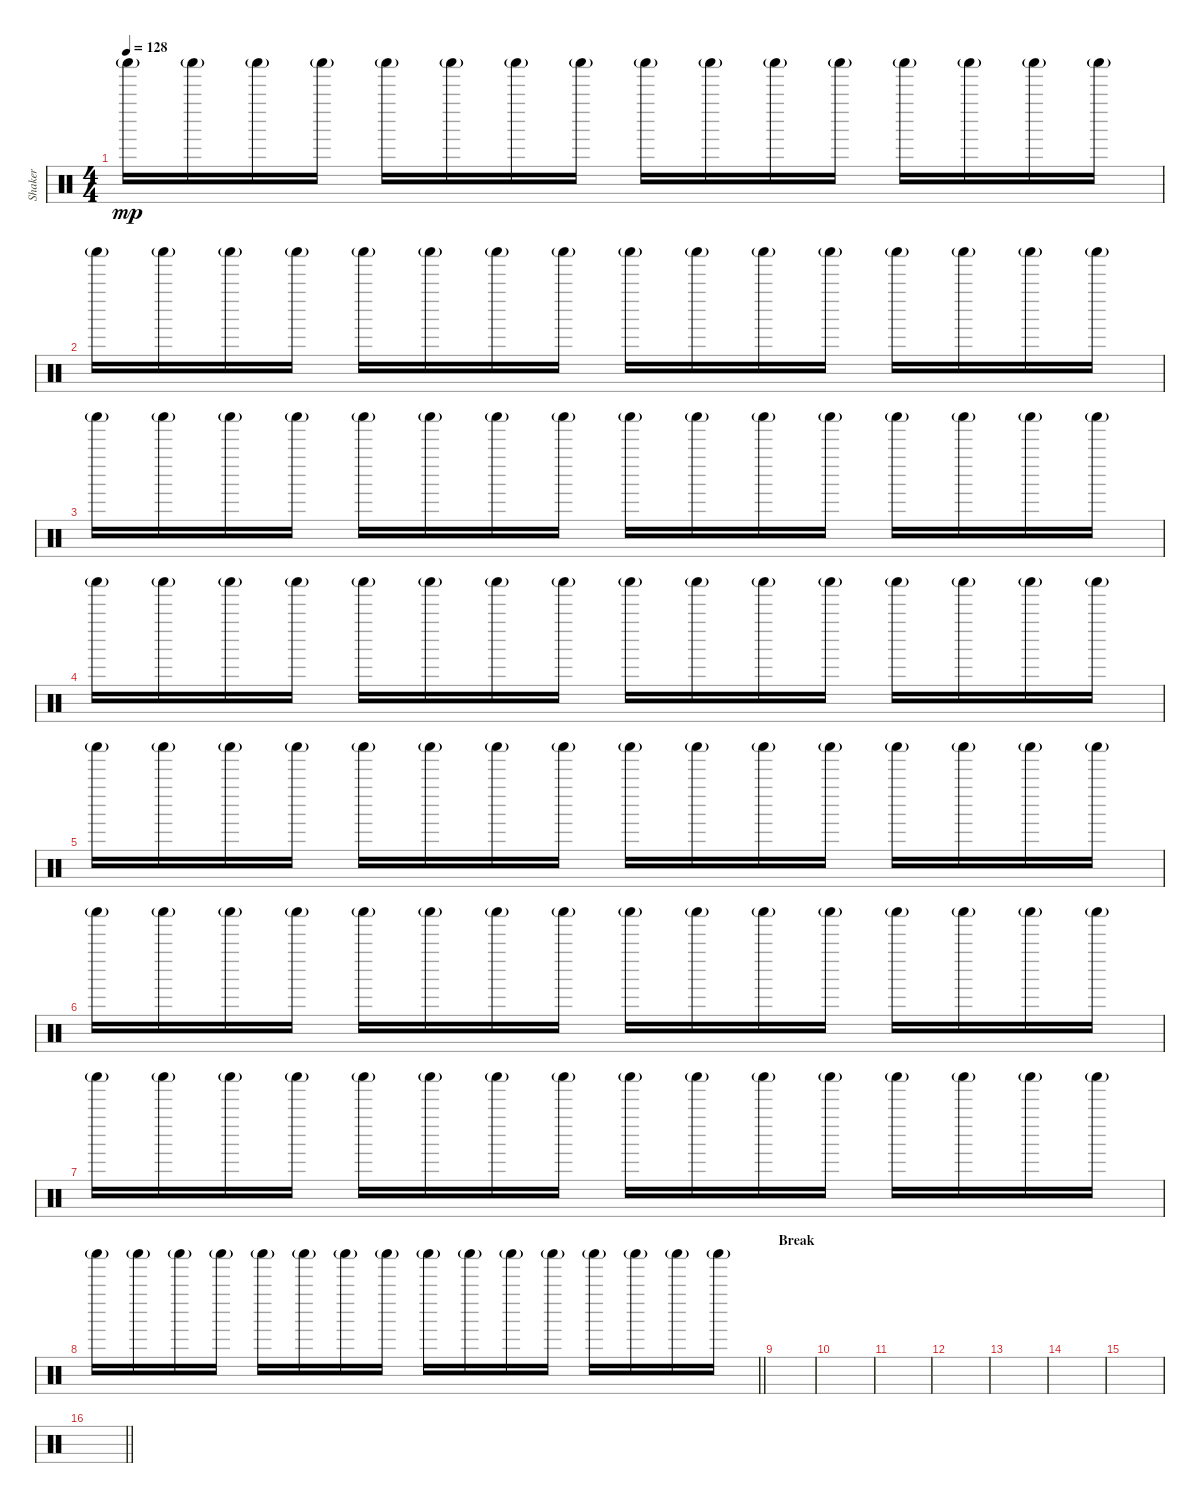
\track ("Shaker" "Shaker") {instrument percussion}
\staff {score}
\articulation defaults
\ts (4 4)
\tempo 128
\clef neutral
\ks c "Shaker (hit)"{g}.16{dy mp} "Shaker (hit)"{g}.16 "Shaker (hit)"{g}.16 "Shaker (hit)"{g}.16 "Shaker (hit)"{g}.16 "Shaker (hit)"{g}.16 "Shaker (hit)"{g}.16 "Shaker (hit)"{g}.16 "Shaker (hit)"{g}.16 "Shaker (hit)"{g}.16 "Shaker (hit)"{g}.16 "Shaker (hit)"{g}.16 "Shaker (hit)"{g}.16 "Shaker (hit)"{g}.16 "Shaker (hit)"{g}.16 "Shaker (hit)"{g}.16
|
"Shaker (hit)"{g}.16 "Shaker (hit)"{g}.16 "Shaker (hit)"{g}.16 "Shaker (hit)"{g}.16 "Shaker (hit)"{g}.16 "Shaker (hit)"{g}.16 "Shaker (hit)"{g}.16 "Shaker (hit)"{g}.16 "Shaker (hit)"{g}.16 "Shaker (hit)"{g}.16 "Shaker (hit)"{g}.16 "Shaker (hit)"{g}.16 "Shaker (hit)"{g}.16 "Shaker (hit)"{g}.16 "Shaker (hit)"{g}.16 "Shaker (hit)"{g}.16 |
"Shaker (hit)"{g}.16 "Shaker (hit)"{g}.16 "Shaker (hit)"{g}.16 "Shaker (hit)"{g}.16 "Shaker (hit)"{g}.16 "Shaker (hit)"{g}.16 "Shaker (hit)"{g}.16 "Shaker (hit)"{g}.16 "Shaker (hit)"{g}.16 "Shaker (hit)"{g}.16 "Shaker (hit)"{g}.16 "Shaker (hit)"{g}.16 "Shaker (hit)"{g}.16 "Shaker (hit)"{g}.16 "Shaker (hit)"{g}.16 "Shaker (hit)"{g}.16 |
"Shaker (hit)"{g}.16 "Shaker (hit)"{g}.16 "Shaker (hit)"{g}.16 "Shaker (hit)"{g}.16 "Shaker (hit)"{g}.16 "Shaker (hit)"{g}.16 "Shaker (hit)"{g}.16 "Shaker (hit)"{g}.16 "Shaker (hit)"{g}.16 "Shaker (hit)"{g}.16 "Shaker (hit)"{g}.16 "Shaker (hit)"{g}.16 "Shaker (hit)"{g}.16 "Shaker (hit)"{g}.16 "Shaker (hit)"{g}.16 "Shaker (hit)"{g}.16 |
"Shaker (hit)"{g}.16 "Shaker (hit)"{g}.16 "Shaker (hit)"{g}.16 "Shaker (hit)"{g}.16 "Shaker (hit)"{g}.16 "Shaker (hit)"{g}.16 "Shaker (hit)"{g}.16 "Shaker (hit)"{g}.16 "Shaker (hit)"{g}.16 "Shaker (hit)"{g}.16 "Shaker (hit)"{g}.16 "Shaker (hit)"{g}.16 "Shaker (hit)"{g}.16 "Shaker (hit)"{g}.16 "Shaker (hit)"{g}.16 "Shaker (hit)"{g}.16 |
"Shaker (hit)"{g}.16 "Shaker (hit)"{g}.16 "Shaker (hit)"{g}.16 "Shaker (hit)"{g}.16 "Shaker (hit)"{g}.16 "Shaker (hit)"{g}.16 "Shaker (hit)"{g}.16 "Shaker (hit)"{g}.16 "Shaker (hit)"{g}.16 "Shaker (hit)"{g}.16 "Shaker (hit)"{g}.16 "Shaker (hit)"{g}.16 "Shaker (hit)"{g}.16 "Shaker (hit)"{g}.16 "Shaker (hit)"{g}.16 "Shaker (hit)"{g}.16 |
"Shaker (hit)"{g}.16 "Shaker (hit)"{g}.16 "Shaker (hit)"{g}.16 "Shaker (hit)"{g}.16 "Shaker (hit)"{g}.16 "Shaker (hit)"{g}.16 "Shaker (hit)"{g}.16 "Shaker (hit)"{g}.16 "Shaker (hit)"{g}.16 "Shaker (hit)"{g}.16 "Shaker (hit)"{g}.16 "Shaker (hit)"{g}.16 "Shaker (hit)"{g}.16 "Shaker (hit)"{g}.16 "Shaker (hit)"{g}.16 "Shaker (hit)"{g}.16 |
\barLineRight lightlight "Shaker (hit)"{g}.16 "Shaker (hit)"{g}.16 "Shaker (hit)"{g}.16 "Shaker (hit)"{g}.16 "Shaker (hit)"{g}.16 "Shaker (hit)"{g}.16 "Shaker (hit)"{g}.16 "Shaker (hit)"{g}.16 "Shaker (hit)"{g}.16 "Shaker (hit)"{g}.16 "Shaker (hit)"{g}.16 "Shaker (hit)"{g}.16 "Shaker (hit)"{g}.16 "Shaker (hit)"{g}.16 "Shaker (hit)"{g}.16 "Shaker (hit)"{g}.16
|
\section ("" "Break")
|
|
|
|
|
|
|
\barLineRight lightlight
